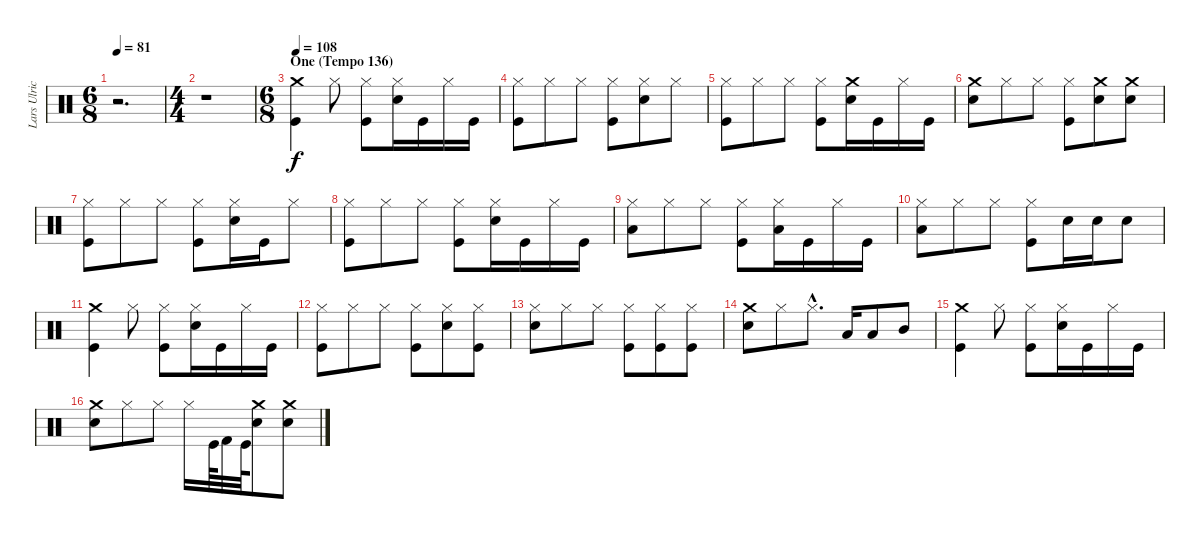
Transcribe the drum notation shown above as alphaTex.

\track ("Lars Ulrich (Drums)" "Lars Ulric") {instrument percussion}
\staff {score}
\articulation defaults
\ts (6 8)
\tempo 81
\clef neutral
\ks c
r.2{d dy f} |
\ts (4 4)
r.1 |
\ts (6 8)
\section ("" "One (Tempo 136)")
\tempo 108
("Crash medium (hit)" "Kick (hit)").4 "Hi-Hat (closed)".8 ("Kick (hit)" "Hi-Hat (closed)").8 ("Snare (hit) 2" "Hi-Hat (closed)").16 "Kick (hit)".16 "Hi-Hat (closed)".16 "Kick (hit)".16 |
("Hi-Hat (closed)" "Kick (hit)").8 "Hi-Hat (closed)".8 "Hi-Hat (closed)".8 ("Hi-Hat (closed)" "Kick (hit)").8 ("Snare (hit) 2" "Hi-Hat (closed)").8 "Hi-Hat (closed)".8 |
("Hi-Hat (closed)" "Kick (hit)").8 "Hi-Hat (closed)".8 "Hi-Hat (closed)".8 ("Kick (hit)" "Hi-Hat (closed)").8 ("Crash medium (hit)" "Snare (hit) 2").16 "Kick (hit)".16 "Hi-Hat (closed)".16 "Kick (hit)".16 |
("Crash medium (hit)" "Snare (hit) 2").8 "Hi-Hat (closed)".8 "Hi-Hat (closed)".8 ("Kick (hit)" "Hi-Hat (closed)").8 ("Crash medium (hit)" "Snare (hit) 2").8 ("Snare (hit) 2" "Crash medium (hit)").8 |
("Hi-Hat (closed)" "Kick (hit)").8 "Hi-Hat (closed)".8 "Hi-Hat (closed)".8 ("Kick (hit)" "Hi-Hat (closed)").8 ("Hi-Hat (closed)" "Snare (hit) 2").16 "Kick (hit)".16 "Hi-Hat (closed)".8 |
("Hi-Hat (closed)" "Kick (hit)").8 "Hi-Hat (closed)".8 "Hi-Hat (closed)".8 ("Kick (hit)" "Hi-Hat (closed)").8 ("Hi-Hat (closed)" "Snare (hit) 2").16 "Kick (hit)".16 "Hi-Hat (closed)".16 "Kick (hit)".16 |
("Hi-Hat (closed)" "Low Tom (hit)").8 "Hi-Hat (closed)".8 "Hi-Hat (closed)".8 ("Kick (hit)" "Hi-Hat (closed)").8 ("Hi-Hat (closed)" "Low Tom (hit)").16 "Kick (hit)".16 "Hi-Hat (closed)".16 "Kick (hit)".16 |
("Hi-Hat (closed)" "Low Tom (hit)").8 "Hi-Hat (closed)".8 "Hi-Hat (closed)".8 ("Kick (hit)" "Hi-Hat (closed)").8 "Snare (hit) 2".16 "Snare (hit) 2".16 "Snare (hit) 2".8 |
("Kick (hit)" "Crash medium (hit)").4 "Hi-Hat (closed)".8 ("Kick (hit)" "Hi-Hat (closed)").8 ("Hi-Hat (closed)" "Snare (hit) 2").16 "Kick (hit)".16 "Hi-Hat (closed)".16 "Kick (hit)".16 |
("Hi-Hat (closed)" "Kick (hit)").8 "Hi-Hat (closed)".8 "Hi-Hat (closed)".8 ("Kick (hit)" "Hi-Hat (closed)").8 ("Hi-Hat (closed)" "Snare (hit) 2").8 ("Kick (hit)" "Hi-Hat (closed)").8 |
("Hi-Hat (closed)" "Snare (hit) 2").8 "Hi-Hat (closed)".8 "Hi-Hat (closed)".8 ("Kick (hit)" "Hi-Hat (closed)").8 ("Hi-Hat (closed)" "Kick (hit)").8 ("Hi-Hat (closed)" "Kick (hit)").8 |
("Crash medium (hit)" "Snare (hit) 2").8 "Hi-Hat (closed)".8 "Hi-Hat (closed)"{hac}.8{d} "Low Tom (hit)".16 "Low Tom (hit)".8 "Mid Tom (hit)".8 |
("Crash medium (hit)" "Kick (hit)").4 "Hi-Hat (closed)".8 ("Kick (hit)" "Hi-Hat (closed)").8 ("Hi-Hat (closed)" "Snare (hit) 2").16 "Kick (hit)".16 "Hi-Hat (closed)".16 "Kick (hit)".16 |
("Crash medium (hit)" "Snare (hit) 2").8 "Hi-Hat (closed)".8 "Hi-Hat (closed)".8 "Hi-Hat (closed)".16 "Kick (hit)".64 "Kick (hit) 2".32 "Kick (hit)".64 ("Crash medium (hit)" "Snare (hit) 2").8 ("Crash medium (hit)" "Snare (hit) 2").8
